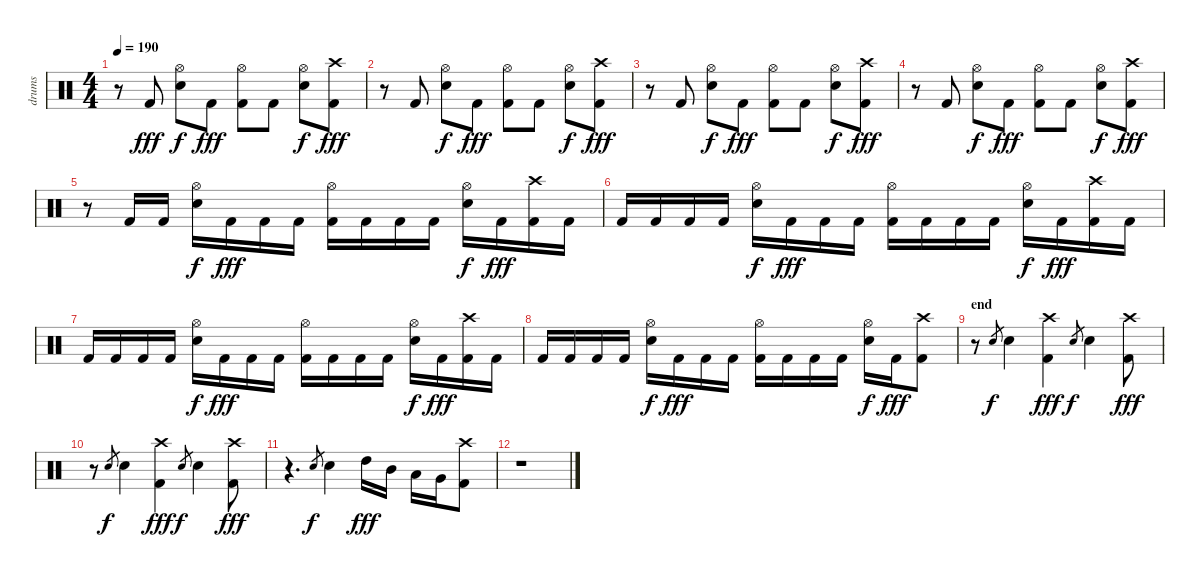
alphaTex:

\track ("drums" "drums") {instrument percussion}
\staff {score}
\articulation defaults
\ts (4 4)
\tempo 190
\clef neutral
\ks c
r.8{dy fff} "Kick (hit) 2".8 ("Hi-Hat (open)" "Snare (hit) 2").8{dy f} "Kick (hit) 2".8{dy fff} ("Hi-Hat (open)" "Kick (hit) 2").8 "Kick (hit) 2".8 ("Hi-Hat (open)" "Snare (hit) 2").8{dy f} ("Crash high (hit)" "Kick (hit) 2").8{dy fff} |
r.8 "Kick (hit) 2".8 ("Hi-Hat (open)" "Snare (hit) 2").8{dy f} "Kick (hit) 2".8{dy fff} ("Hi-Hat (open)" "Kick (hit) 2").8 "Kick (hit) 2".8 ("Hi-Hat (open)" "Snare (hit) 2").8{dy f} ("Crash high (hit)" "Kick (hit) 2").8{dy fff} |
r.8 "Kick (hit) 2".8 ("Hi-Hat (open)" "Snare (hit) 2").8{dy f} "Kick (hit) 2".8{dy fff} ("Hi-Hat (open)" "Kick (hit) 2").8 "Kick (hit) 2".8 ("Hi-Hat (open)" "Snare (hit) 2").8{dy f} ("Crash high (hit)" "Kick (hit) 2").8{dy fff} |
r.8 "Kick (hit) 2".8 ("Hi-Hat (open)" "Snare (hit) 2").8{dy f} "Kick (hit) 2".8{dy fff} ("Hi-Hat (open)" "Kick (hit) 2").8 "Kick (hit) 2".8 ("Hi-Hat (open)" "Snare (hit) 2").8{dy f} ("Crash high (hit)" "Kick (hit) 2").8{dy fff} |
r.8 "Kick (hit) 2".16 "Kick (hit) 2".16 ("Hi-Hat (open)" "Snare (hit) 2").16{dy f} "Kick (hit) 2".16{dy fff} "Kick (hit) 2".16 "Kick (hit) 2".16 ("Hi-Hat (open)" "Kick (hit) 2").16 "Kick (hit) 2".16 "Kick (hit) 2".16 "Kick (hit) 2".16 ("Hi-Hat (open)" "Snare (hit) 2").16{dy f} "Kick (hit) 2".16{dy fff} ("Crash high (hit)" "Kick (hit) 2").16 "Kick (hit) 2".16 |
"Kick (hit) 2".16 "Kick (hit) 2".16 "Kick (hit) 2".16 "Kick (hit) 2".16 ("Hi-Hat (open)" "Snare (hit) 2").16{dy f} "Kick (hit) 2".16{dy fff} "Kick (hit) 2".16 "Kick (hit) 2".16 ("Hi-Hat (open)" "Kick (hit) 2").16 "Kick (hit) 2".16 "Kick (hit) 2".16 "Kick (hit) 2".16 ("Hi-Hat (open)" "Snare (hit) 2").16{dy f} "Kick (hit) 2".16{dy fff} ("Crash high (hit)" "Kick (hit) 2").16 "Kick (hit) 2".16 |
"Kick (hit) 2".16 "Kick (hit) 2".16 "Kick (hit) 2".16 "Kick (hit) 2".16 ("Hi-Hat (open)" "Snare (hit) 2").16{dy f} "Kick (hit) 2".16{dy fff} "Kick (hit) 2".16 "Kick (hit) 2".16 ("Hi-Hat (open)" "Kick (hit) 2").16 "Kick (hit) 2".16 "Kick (hit) 2".16 "Kick (hit) 2".16 ("Hi-Hat (open)" "Snare (hit) 2").16{dy f} "Kick (hit) 2".16{dy fff} ("Crash high (hit)" "Kick (hit) 2").16 "Kick (hit) 2".16 |
"Kick (hit) 2".16 "Kick (hit) 2".16 "Kick (hit) 2".16 "Kick (hit) 2".16 ("Hi-Hat (open)" "Snare (hit) 2").16{dy f} "Kick (hit) 2".16{dy fff} "Kick (hit) 2".16 "Kick (hit) 2".16 ("Hi-Hat (open)" "Kick (hit) 2").16 "Kick (hit) 2".16 "Kick (hit) 2".16 "Kick (hit) 2".16 ("Hi-Hat (open)" "Snare (hit) 2").16{dy f} "Kick (hit) 2".16{dy fff} ("Crash high (hit)" "Kick (hit) 2").8 |
\section ("" "end")
r.8 "Snare (hit) 2".8{gr dy f} "Snare (hit) 2".4 ("Crash high (hit)" "Kick (hit) 2").4{dy fff} "Snare (hit) 2".8{gr dy f} "Snare (hit) 2".4 ("Crash high (hit)" "Kick (hit) 2").8{dy fff} |
r.8 "Snare (hit) 2".8{gr dy f} "Snare (hit) 2".4 ("Crash high (hit)" "Kick (hit) 2").4{dy fff} "Snare (hit) 2".8{gr dy f} "Snare (hit) 2".4 ("Crash high (hit)" "Kick (hit) 2").8{dy fff} |
r.4{d} "Snare (hit) 2".8{gr dy f} "Snare (hit) 2".4 "High Tom (hit)".16{dy fff} "Mid Tom (hit)".16 "Low Tom (hit)".16 "Very Low Tom (hit)".16 ("Crash high (hit)" "Kick (hit) 2").8 |
r.1
